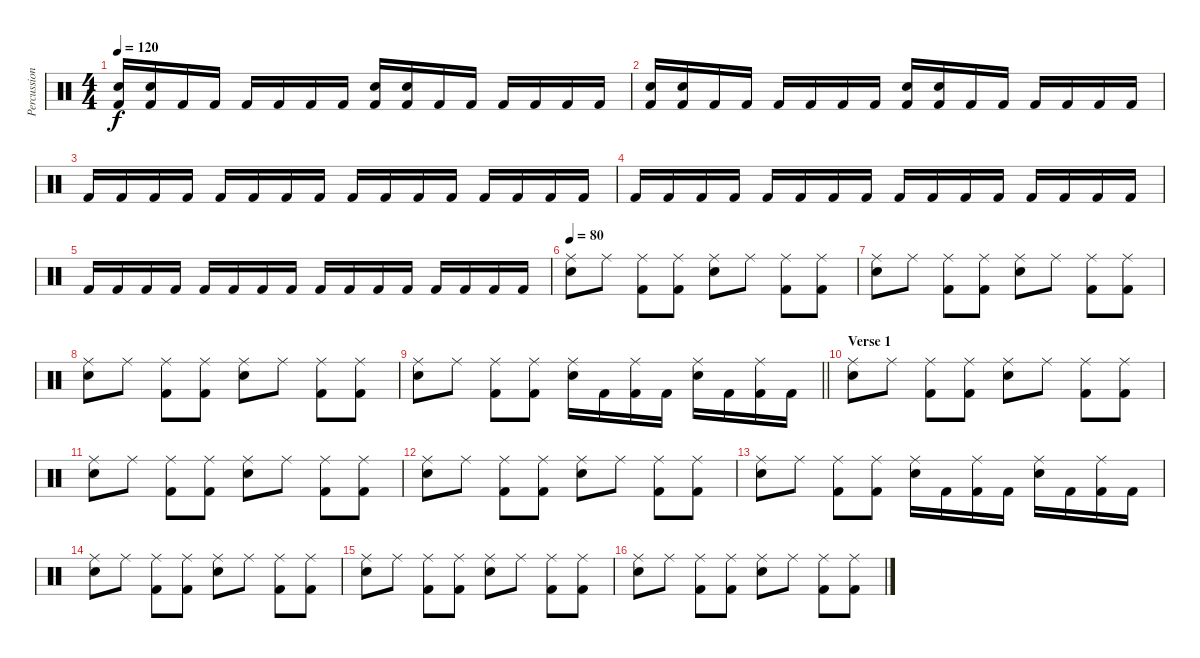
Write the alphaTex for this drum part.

\track ("Percussion" "Percussion") {instrument percussion}
\staff {score}
\articulation defaults
\ts (4 4)
\tempo 120
\clef neutral
\ks c
("Snare (hit) 2" "Kick (hit) 2").16{dy f} ("Snare (hit) 2" "Kick (hit) 2").16 "Kick (hit) 2".16 "Kick (hit) 2".16 "Kick (hit) 2".16 "Kick (hit) 2".16 "Kick (hit) 2".16 "Kick (hit) 2".16 ("Snare (hit) 2" "Kick (hit) 2").16 ("Snare (hit) 2" "Kick (hit) 2").16 "Kick (hit) 2".16 "Kick (hit) 2".16 "Kick (hit) 2".16 "Kick (hit) 2".16 "Kick (hit) 2".16 "Kick (hit) 2".16 |
("Snare (hit) 2" "Kick (hit) 2").16 ("Snare (hit) 2" "Kick (hit) 2").16 "Kick (hit) 2".16 "Kick (hit) 2".16 "Kick (hit) 2".16 "Kick (hit) 2".16 "Kick (hit) 2".16 "Kick (hit) 2".16 ("Snare (hit) 2" "Kick (hit) 2").16 ("Snare (hit) 2" "Kick (hit) 2").16 "Kick (hit) 2".16 "Kick (hit) 2".16 "Kick (hit) 2".16 "Kick (hit) 2".16 "Kick (hit) 2".16 "Kick (hit) 2".16 |
"Kick (hit) 2".16 "Kick (hit) 2".16 "Kick (hit) 2".16 "Kick (hit) 2".16 "Kick (hit) 2".16 "Kick (hit) 2".16 "Kick (hit) 2".16 "Kick (hit) 2".16 "Kick (hit) 2".16 "Kick (hit) 2".16 "Kick (hit) 2".16 "Kick (hit) 2".16 "Kick (hit) 2".16 "Kick (hit) 2".16 "Kick (hit) 2".16 "Kick (hit) 2".16 |
"Kick (hit) 2".16 "Kick (hit) 2".16 "Kick (hit) 2".16 "Kick (hit) 2".16 "Kick (hit) 2".16 "Kick (hit) 2".16 "Kick (hit) 2".16 "Kick (hit) 2".16 "Kick (hit) 2".16 "Kick (hit) 2".16 "Kick (hit) 2".16 "Kick (hit) 2".16 "Kick (hit) 2".16 "Kick (hit) 2".16 "Kick (hit) 2".16 "Kick (hit) 2".16 |
"Kick (hit) 2".16 "Kick (hit) 2".16 "Kick (hit) 2".16 "Kick (hit) 2".16 "Kick (hit) 2".16 "Kick (hit) 2".16 "Kick (hit) 2".16 "Kick (hit) 2".16 "Kick (hit) 2".16 "Kick (hit) 2".16 "Kick (hit) 2".16 "Kick (hit) 2".16 "Kick (hit) 2".16 "Kick (hit) 2".16 "Kick (hit) 2".16 "Kick (hit) 2".16 |
\tempo 80
("Ride (middle)" "Snare (hit) 2").8 "Ride (middle)".8 ("Ride (middle)" "Kick (hit) 2").8 ("Ride (middle)" "Kick (hit) 2").8 ("Ride (middle)" "Snare (hit) 2").8 "Ride (middle)".8 ("Ride (middle)" "Kick (hit) 2").8 ("Ride (middle)" "Kick (hit) 2").8 |
("Ride (middle)" "Snare (hit) 2").8 "Ride (middle)".8 ("Ride (middle)" "Kick (hit) 2").8 ("Ride (middle)" "Kick (hit) 2").8 ("Ride (middle)" "Snare (hit) 2").8 "Ride (middle)".8 ("Ride (middle)" "Kick (hit) 2").8 ("Ride (middle)" "Kick (hit) 2").8 |
("Ride (middle)" "Snare (hit) 2").8 "Ride (middle)".8 ("Ride (middle)" "Kick (hit) 2").8 ("Ride (middle)" "Kick (hit) 2").8 ("Ride (middle)" "Snare (hit) 2").8 "Ride (middle)".8 ("Ride (middle)" "Kick (hit) 2").8 ("Ride (middle)" "Kick (hit) 2").8 |
\barLineRight lightlight
("Ride (middle)" "Snare (hit) 2").8 "Ride (middle)".8 ("Ride (middle)" "Kick (hit) 2").8 ("Ride (middle)" "Kick (hit) 2").8 ("Ride (middle)" "Snare (hit) 2").16 "Kick (hit) 2".16 ("Ride (middle)" "Kick (hit) 2").16 "Kick (hit) 2".16 ("Ride (middle)" "Snare (hit) 2").16 "Kick (hit) 2".16 ("Ride (middle)" "Kick (hit) 2").16 "Kick (hit) 2".16 |
\section ("" "Verse 1")
("Ride (middle)" "Snare (hit) 2").8 "Ride (middle)".8 ("Ride (middle)" "Kick (hit) 2").8 ("Ride (middle)" "Kick (hit) 2").8 ("Ride (middle)" "Snare (hit) 2").8 "Ride (middle)".8 ("Ride (middle)" "Kick (hit) 2").8 ("Ride (middle)" "Kick (hit) 2").8 |
("Ride (middle)" "Snare (hit) 2").8 "Ride (middle)".8 ("Ride (middle)" "Kick (hit) 2").8 ("Ride (middle)" "Kick (hit) 2").8 ("Ride (middle)" "Snare (hit) 2").8 "Ride (middle)".8 ("Ride (middle)" "Kick (hit) 2").8 ("Ride (middle)" "Kick (hit) 2").8 |
("Ride (middle)" "Snare (hit) 2").8 "Ride (middle)".8 ("Ride (middle)" "Kick (hit) 2").8 ("Ride (middle)" "Kick (hit) 2").8 ("Ride (middle)" "Snare (hit) 2").8 "Ride (middle)".8 ("Ride (middle)" "Kick (hit) 2").8 ("Ride (middle)" "Kick (hit) 2").8 |
("Ride (middle)" "Snare (hit) 2").8 "Ride (middle)".8 ("Ride (middle)" "Kick (hit) 2").8 ("Ride (middle)" "Kick (hit) 2").8 ("Ride (middle)" "Snare (hit) 2").16 "Kick (hit) 2".16 ("Ride (middle)" "Kick (hit) 2").16 "Kick (hit) 2".16 ("Ride (middle)" "Snare (hit) 2").16 "Kick (hit) 2".16 ("Ride (middle)" "Kick (hit) 2").16 "Kick (hit) 2".16 |
("Ride (middle)" "Snare (hit) 2").8 "Ride (middle)".8 ("Ride (middle)" "Kick (hit) 2").8 ("Ride (middle)" "Kick (hit) 2").8 ("Ride (middle)" "Snare (hit) 2").8 "Ride (middle)".8 ("Ride (middle)" "Kick (hit) 2").8 ("Ride (middle)" "Kick (hit) 2").8 |
("Ride (middle)" "Snare (hit) 2").8 "Ride (middle)".8 ("Ride (middle)" "Kick (hit) 2").8 ("Ride (middle)" "Kick (hit) 2").8 ("Ride (middle)" "Snare (hit) 2").8 "Ride (middle)".8 ("Ride (middle)" "Kick (hit) 2").8 ("Ride (middle)" "Kick (hit) 2").8 |
("Ride (middle)" "Snare (hit) 2").8 "Ride (middle)".8 ("Ride (middle)" "Kick (hit) 2").8 ("Ride (middle)" "Kick (hit) 2").8 ("Ride (middle)" "Snare (hit) 2").8 "Ride (middle)".8 ("Ride (middle)" "Kick (hit) 2").8 ("Ride (middle)" "Kick (hit) 2").8
